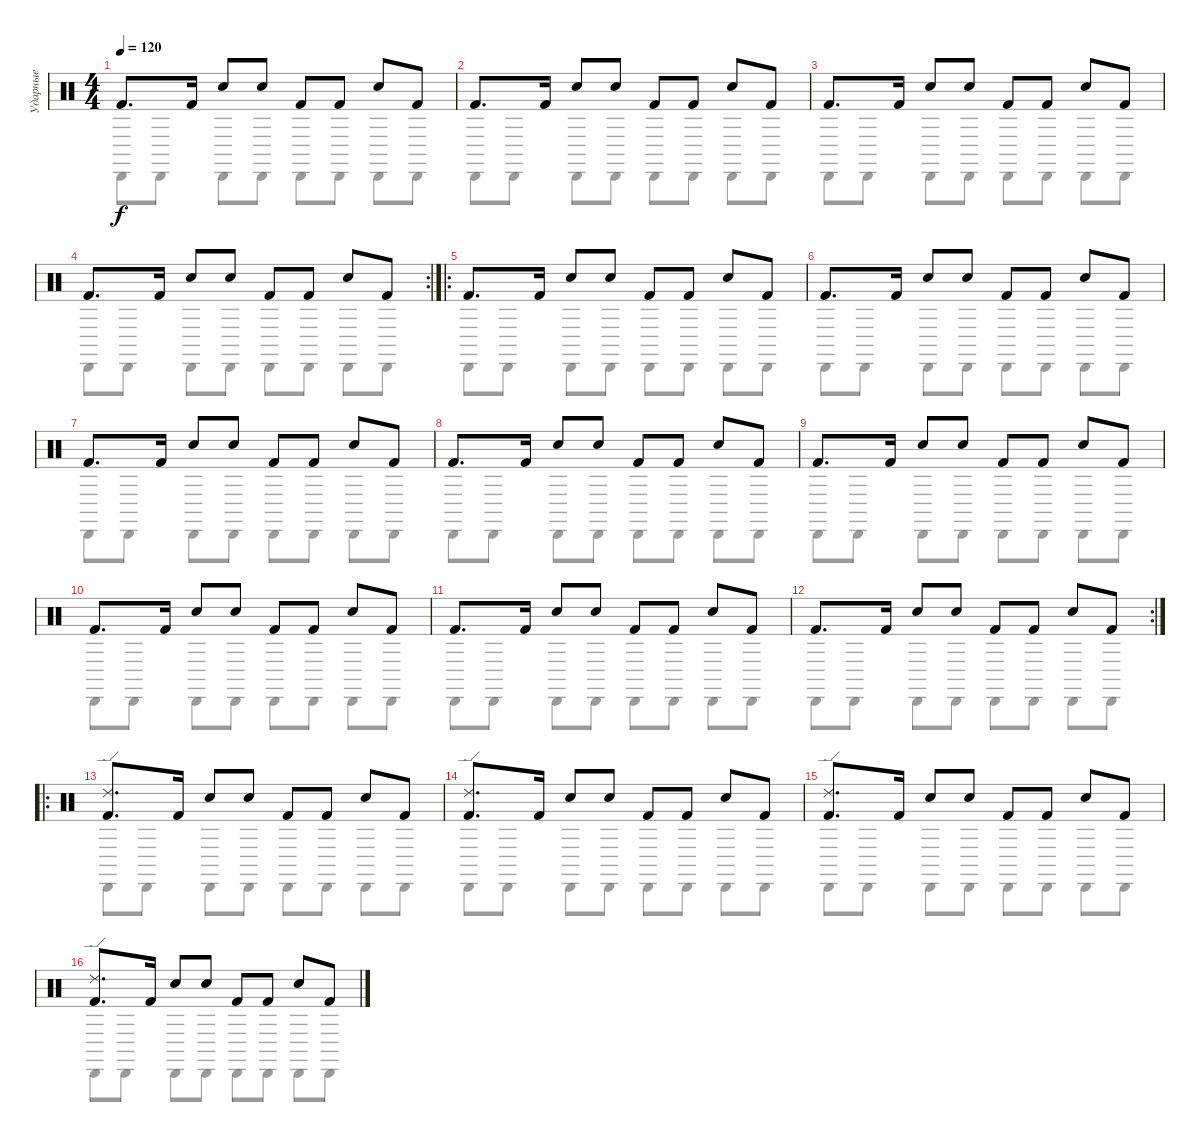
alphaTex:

\track ("Ударные" "Ударные") {instrument percussion}
\staff {score}
\articulation defaults
\voice
\ts (4 4)
\tempo 120
\clef neutral
\ks c "Kick (hit) 2".8{d dy f} "Kick (hit) 2".16 "Hand Clap (hit)".8 "Hand Clap (hit)".8 "Kick (hit) 2".8 "Kick (hit) 2".8 "Hand Clap (hit)".8 "Kick (hit) 2".8
|
"Kick (hit) 2".8{d} "Kick (hit) 2".16 "Hand Clap (hit)".8 "Hand Clap (hit)".8 "Kick (hit) 2".8 "Kick (hit) 2".8 "Hand Clap (hit)".8 "Kick (hit) 2".8 |
"Kick (hit) 2".8{d} "Kick (hit) 2".16 "Hand Clap (hit)".8 "Hand Clap (hit)".8 "Kick (hit) 2".8 "Kick (hit) 2".8 "Hand Clap (hit)".8 "Kick (hit) 2".8 |
\rc 2 "Kick (hit) 2".8{d} "Kick (hit) 2".16 "Hand Clap (hit)".8 "Hand Clap (hit)".8 "Kick (hit) 2".8 "Kick (hit) 2".8 "Hand Clap (hit)".8 "Kick (hit) 2".8
|
\ro "Kick (hit) 2".8{d} "Kick (hit) 2".16 "Hand Clap (hit)".8 "Hand Clap (hit)".8 "Kick (hit) 2".8 "Kick (hit) 2".8 "Hand Clap (hit)".8 "Kick (hit) 2".8
|
"Kick (hit) 2".8{d} "Kick (hit) 2".16 "Hand Clap (hit)".8 "Hand Clap (hit)".8 "Kick (hit) 2".8 "Kick (hit) 2".8 "Hand Clap (hit)".8 "Kick (hit) 2".8 |
"Kick (hit) 2".8{d} "Kick (hit) 2".16 "Hand Clap (hit)".8 "Hand Clap (hit)".8 "Kick (hit) 2".8 "Kick (hit) 2".8 "Hand Clap (hit)".8 "Kick (hit) 2".8 |
"Kick (hit) 2".8{d} "Kick (hit) 2".16 "Hand Clap (hit)".8 "Hand Clap (hit)".8 "Kick (hit) 2".8 "Kick (hit) 2".8 "Hand Clap (hit)".8 "Kick (hit) 2".8 |
"Kick (hit) 2".8{d} "Kick (hit) 2".16 "Hand Clap (hit)".8 "Hand Clap (hit)".8 "Kick (hit) 2".8 "Kick (hit) 2".8 "Hand Clap (hit)".8 "Kick (hit) 2".8 |
"Kick (hit) 2".8{d} "Kick (hit) 2".16 "Hand Clap (hit)".8 "Hand Clap (hit)".8 "Kick (hit) 2".8 "Kick (hit) 2".8 "Hand Clap (hit)".8 "Kick (hit) 2".8 |
"Kick (hit) 2".8{d} "Kick (hit) 2".16 "Hand Clap (hit)".8 "Hand Clap (hit)".8 "Kick (hit) 2".8 "Kick (hit) 2".8 "Hand Clap (hit)".8 "Kick (hit) 2".8 |
\rc 2 "Kick (hit) 2".8{d} "Kick (hit) 2".16 "Hand Clap (hit)".8 "Hand Clap (hit)".8 "Kick (hit) 2".8 "Kick (hit) 2".8 "Hand Clap (hit)".8 "Kick (hit) 2".8
|
\ro
("Kick (hit) 2" "Ride (edge) 2").8{d} "Kick (hit) 2".16 "Hand Clap (hit)".8 "Hand Clap (hit)".8 "Kick (hit) 2".8 "Kick (hit) 2".8 "Hand Clap (hit)".8 "Kick (hit) 2".8 |
("Kick (hit) 2" "Ride (edge) 2").8{d} "Kick (hit) 2".16 "Hand Clap (hit)".8 "Hand Clap (hit)".8 "Kick (hit) 2".8 "Kick (hit) 2".8 "Hand Clap (hit)".8 "Kick (hit) 2".8 |
("Kick (hit) 2" "Ride (edge) 2").8{d} "Kick (hit) 2".16 "Hand Clap (hit)".8 "Hand Clap (hit)".8 "Kick (hit) 2".8 "Kick (hit) 2".8 "Hand Clap (hit)".8 "Kick (hit) 2".8 |
("Kick (hit) 2" "Ride (edge) 2").8{d} "Kick (hit) 2".16 "Hand Clap (hit)".8 "Hand Clap (hit)".8 "Kick (hit) 2".8 "Kick (hit) 2".8 "Hand Clap (hit)".8 "Kick (hit) 2".8
\voice
\clef neutral
\ottava regular
\simile none
\ks c "Cabasa (hit)".8{dy f} "Cabasa (hit)".8 "Cabasa (hit)".8 "Cabasa (hit)".8 "Cabasa (hit)".8 "Cabasa (hit)".8 "Cabasa (hit)".8 "Cabasa (hit)".8
|
"Cabasa (hit)".8 "Cabasa (hit)".8 "Cabasa (hit)".8 "Cabasa (hit)".8 "Cabasa (hit)".8 "Cabasa (hit)".8 "Cabasa (hit)".8 "Cabasa (hit)".8 |
"Cabasa (hit)".8 "Cabasa (hit)".8 "Cabasa (hit)".8 "Cabasa (hit)".8 "Cabasa (hit)".8 "Cabasa (hit)".8 "Cabasa (hit)".8 "Cabasa (hit)".8 |
"Cabasa (hit)".8 "Cabasa (hit)".8 "Cabasa (hit)".8 "Cabasa (hit)".8 "Cabasa (hit)".8 "Cabasa (hit)".8 "Cabasa (hit)".8 "Cabasa (hit)".8 |
"Cabasa (hit)".8 "Cabasa (hit)".8 "Cabasa (hit)".8 "Cabasa (hit)".8 "Cabasa (hit)".8 "Cabasa (hit)".8 "Cabasa (hit)".8 "Cabasa (hit)".8 |
"Cabasa (hit)".8 "Cabasa (hit)".8 "Cabasa (hit)".8 "Cabasa (hit)".8 "Cabasa (hit)".8 "Cabasa (hit)".8 "Cabasa (hit)".8 "Cabasa (hit)".8 |
"Cabasa (hit)".8 "Cabasa (hit)".8 "Cabasa (hit)".8 "Cabasa (hit)".8 "Cabasa (hit)".8 "Cabasa (hit)".8 "Cabasa (hit)".8 "Cabasa (hit)".8 |
"Cabasa (hit)".8 "Cabasa (hit)".8 "Cabasa (hit)".8 "Cabasa (hit)".8 "Cabasa (hit)".8 "Cabasa (hit)".8 "Cabasa (hit)".8 "Cabasa (hit)".8 |
"Cabasa (hit)".8 "Cabasa (hit)".8 "Cabasa (hit)".8 "Cabasa (hit)".8 "Cabasa (hit)".8 "Cabasa (hit)".8 "Cabasa (hit)".8 "Cabasa (hit)".8 |
"Cabasa (hit)".8 "Cabasa (hit)".8 "Cabasa (hit)".8 "Cabasa (hit)".8 "Cabasa (hit)".8 "Cabasa (hit)".8 "Cabasa (hit)".8 "Cabasa (hit)".8 |
"Cabasa (hit)".8 "Cabasa (hit)".8 "Cabasa (hit)".8 "Cabasa (hit)".8 "Cabasa (hit)".8 "Cabasa (hit)".8 "Cabasa (hit)".8 "Cabasa (hit)".8 |
"Cabasa (hit)".8 "Cabasa (hit)".8 "Cabasa (hit)".8 "Cabasa (hit)".8 "Cabasa (hit)".8 "Cabasa (hit)".8 "Cabasa (hit)".8 "Cabasa (hit)".8 |
"Cabasa (hit)".8 "Cabasa (hit)".8 "Cabasa (hit)".8 "Cabasa (hit)".8 "Cabasa (hit)".8 "Cabasa (hit)".8 "Cabasa (hit)".8 "Cabasa (hit)".8 |
"Cabasa (hit)".8 "Cabasa (hit)".8 "Cabasa (hit)".8 "Cabasa (hit)".8 "Cabasa (hit)".8 "Cabasa (hit)".8 "Cabasa (hit)".8 "Cabasa (hit)".8 |
"Cabasa (hit)".8 "Cabasa (hit)".8 "Cabasa (hit)".8 "Cabasa (hit)".8 "Cabasa (hit)".8 "Cabasa (hit)".8 "Cabasa (hit)".8 "Cabasa (hit)".8 |
"Cabasa (hit)".8 "Cabasa (hit)".8 "Cabasa (hit)".8 "Cabasa (hit)".8 "Cabasa (hit)".8 "Cabasa (hit)".8 "Cabasa (hit)".8 "Cabasa (hit)".8
